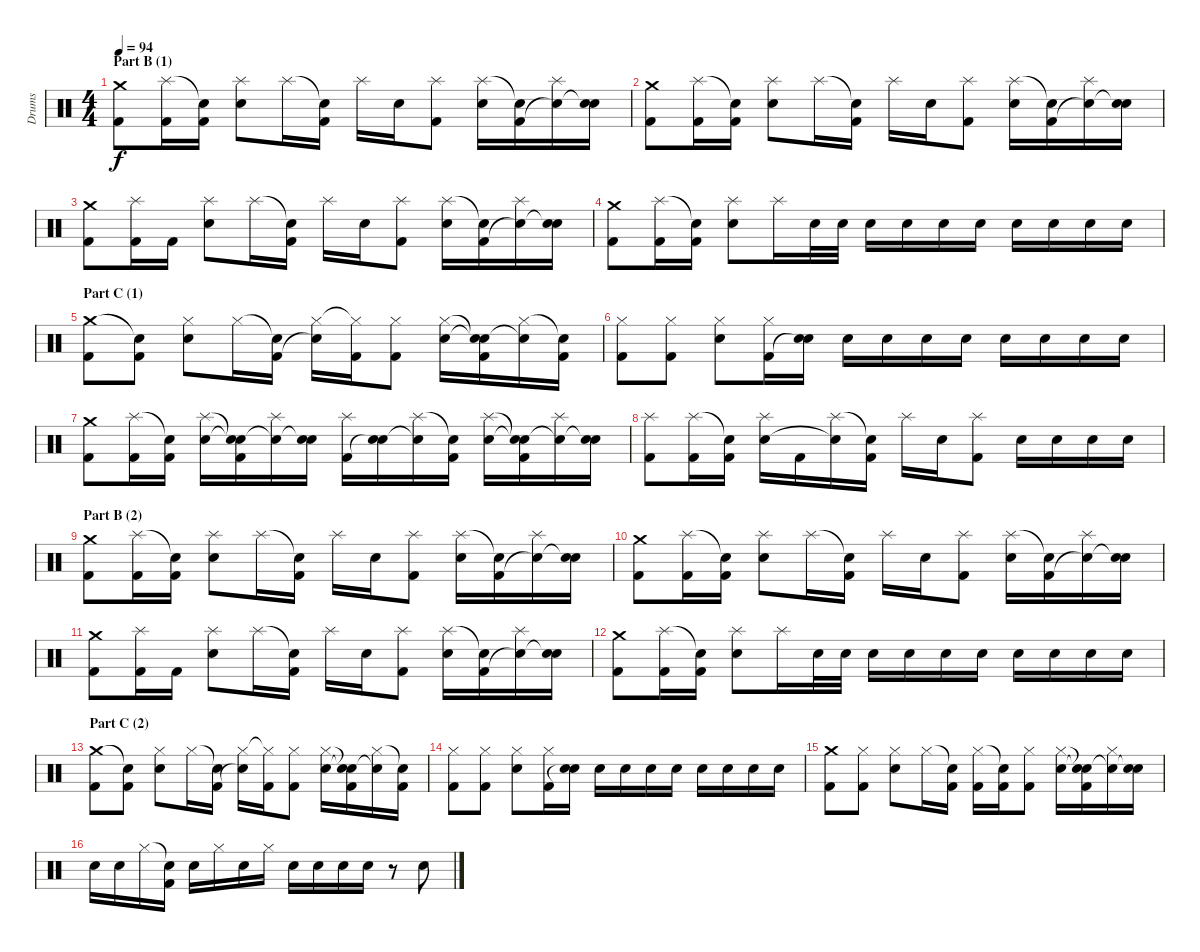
\track ("Drums" "Drums") {instrument percussion}
\staff {score}
\articulation defaults
\ts (4 4)
\section ("" "Part B (1)")
\tempo 94
\clef neutral
\ks c
("Crash medium (hit)" "Kick (hit) 2").8{dy f} ("Splash (hit)" "Kick (hit) 2").16 ("Snare (hit)"{t} "Kick (hit) 2").16 ("Splash (hit)" "Electric Snare (hit)").8 "Splash (hit)".16 ("Snare (hit)"{t} "Kick (hit) 2").16 "Splash (hit)".16 "Electric Snare (hit)".16 ("Splash (hit)" "Kick (hit) 2").8 ("Splash (hit)" "Electric Snare (hit)").16 ("Snare (hit)"{t} "Kick (hit) 2").16 ("Splash (hit)" "Snare (hit)"{t}).16 ("Electric Snare (hit)" "Snare (hit)"{t}).16 |
("Crash medium (hit)" "Kick (hit) 2").8 ("Splash (hit)" "Kick (hit) 2").16 ("Snare (hit)"{t} "Kick (hit) 2").16 ("Splash (hit)" "Electric Snare (hit)").8 "Splash (hit)".16 ("Snare (hit)"{t} "Kick (hit) 2").16 "Splash (hit)".16 "Electric Snare (hit)".16 ("Splash (hit)" "Kick (hit) 2").8 ("Splash (hit)" "Electric Snare (hit)").16 ("Snare (hit)"{t} "Kick (hit) 2").16 ("Splash (hit)" "Snare (hit)"{t}).16 ("Electric Snare (hit)" "Snare (hit)"{t}).16 |
("Crash medium (hit)" "Kick (hit) 2").8 ("Splash (hit)" "Kick (hit) 2").16 "Kick (hit) 2".16 ("Splash (hit)" "Electric Snare (hit)").8 "Splash (hit)".16 ("Snare (hit)"{t} "Kick (hit) 2").16 "Splash (hit)".16 "Electric Snare (hit)".16 ("Splash (hit)" "Kick (hit) 2").8 ("Splash (hit)" "Electric Snare (hit)").16 ("Snare (hit)"{t} "Kick (hit) 2").16 ("Splash (hit)" "Snare (hit)"{t}).16 ("Electric Snare (hit)" "Snare (hit)"{t}).16 |
("Crash medium (hit)" "Kick (hit) 2").8 ("Splash (hit)" "Kick (hit) 2").16 ("Snare (hit)"{t} "Kick (hit) 2").16 ("Splash (hit)" "Electric Snare (hit)").8 "Splash (hit)".16 "Electric Snare (hit)".32 "Electric Snare (hit)".32 "Electric Snare (hit)".16 "Electric Snare (hit)".16 "Electric Snare (hit)".16 "Electric Snare (hit)".16 "Electric Snare (hit)".16 "Electric Snare (hit)".16 "Electric Snare (hit)".16 "Electric Snare (hit)".16 |
\section ("" "Part C (1)")
("Crash medium (hit)" "Kick (hit) 2").8 ("Snare (hit)"{t} "Kick (hit) 2").8 ("Hi-Hat (closed)" "Electric Snare (hit)").8 "Hi-Hat (closed)".16 ("Snare (hit)"{t} "Kick (hit) 2").16 ("Hi-Hat (closed)" "Snare (hit)"{t}).16 ("Hi-Hat (closed)"{t} "Kick (hit) 2").16 ("Hi-Hat (closed)" "Kick (hit) 2").8 ("Hi-Hat (closed)" "Electric Snare (hit)").16 ("Snare (hit)"{t} "Snare (hit)"{t} "Kick (hit) 2").16 ("Hi-Hat (closed)" "Snare (hit)"{t}).16 ("Snare (hit)"{t} "Kick (hit) 2").16 |
("Hi-Hat (closed)" "Kick (hit) 2").8 ("Hi-Hat (closed)" "Kick (hit) 2").8 ("Hi-Hat (closed)" "Electric Snare (hit)").8 ("Hi-Hat (closed)" "Kick (hit) 2").16 ("Electric Snare (hit)" "Snare (hit)"{t}).16 "Electric Snare (hit)".16 "Electric Snare (hit)".16 "Electric Snare (hit)".16 "Electric Snare (hit)".16 "Electric Snare (hit)".16 "Electric Snare (hit)".16 "Electric Snare (hit)".16 "Electric Snare (hit)".16 |
("Crash medium (hit)" "Kick (hit) 2").8 ("Splash (hit)" "Kick (hit) 2").16 ("Snare (hit)"{t} "Kick (hit) 2").16 ("Splash (hit)" "Electric Snare (hit)").16 ("Snare (hit)"{t} "Snare (hit)"{t} "Kick (hit) 2").16 ("Splash (hit)" "Snare (hit)"{t}).16 ("Electric Snare (hit)" "Snare (hit)"{t}).16 ("Splash (hit)" "Kick (hit) 2").16 ("Electric Snare (hit)" "Snare (hit)"{t}).16 ("Splash (hit)" "Snare (hit)"{t}).16 ("Snare (hit)"{t} "Kick (hit) 2").16 ("Splash (hit)" "Electric Snare (hit)").16 ("Snare (hit)"{t} "Snare (hit)"{t} "Kick (hit) 2").16 ("Splash (hit)" "Snare (hit)"{t}).16 ("Electric Snare (hit)" "Snare (hit)"{t}).16 |
("Splash (hit)" "Kick (hit) 2").8 ("Splash (hit)" "Kick (hit) 2").16 ("Snare (hit)"{t} "Kick (hit) 2").16 ("Splash (hit)" "Electric Snare (hit)").16 "Kick (hit) 2".16 ("Splash (hit)" "Snare (hit)"{t}).16 ("Snare (hit)"{t} "Kick (hit) 2").16 "Splash (hit)".16 "Electric Snare (hit)".16 ("Splash (hit)" "Kick (hit) 2").8 "Electric Snare (hit)".16 "Electric Snare (hit)".16 "Electric Snare (hit)".16 "Electric Snare (hit)".16 |
\section ("" "Part B (2)")
("Crash medium (hit)" "Kick (hit) 2").8 ("Splash (hit)" "Kick (hit) 2").16 ("Snare (hit)"{t} "Kick (hit) 2").16 ("Splash (hit)" "Electric Snare (hit)").8 "Splash (hit)".16 ("Snare (hit)"{t} "Kick (hit) 2").16 "Splash (hit)".16 "Electric Snare (hit)".16 ("Splash (hit)" "Kick (hit) 2").8 ("Splash (hit)" "Electric Snare (hit)").16 ("Snare (hit)"{t} "Kick (hit) 2").16 ("Splash (hit)" "Snare (hit)"{t}).16 ("Electric Snare (hit)" "Snare (hit)"{t}).16 |
("Crash medium (hit)" "Kick (hit) 2").8 ("Splash (hit)" "Kick (hit) 2").16 ("Snare (hit)"{t} "Kick (hit) 2").16 ("Splash (hit)" "Electric Snare (hit)").8 "Splash (hit)".16 ("Snare (hit)"{t} "Kick (hit) 2").16 "Splash (hit)".16 "Electric Snare (hit)".16 ("Splash (hit)" "Kick (hit) 2").8 ("Splash (hit)" "Electric Snare (hit)").16 ("Snare (hit)"{t} "Kick (hit) 2").16 ("Splash (hit)" "Snare (hit)"{t}).16 ("Electric Snare (hit)" "Snare (hit)"{t}).16 |
("Crash medium (hit)" "Kick (hit) 2").8 ("Splash (hit)" "Kick (hit) 2").16 "Kick (hit) 2".16 ("Splash (hit)" "Electric Snare (hit)").8 "Splash (hit)".16 ("Snare (hit)"{t} "Kick (hit) 2").16 "Splash (hit)".16 "Electric Snare (hit)".16 ("Splash (hit)" "Kick (hit) 2").8 ("Splash (hit)" "Electric Snare (hit)").16 ("Snare (hit)"{t} "Kick (hit) 2").16 ("Splash (hit)" "Snare (hit)"{t}).16 ("Electric Snare (hit)" "Snare (hit)"{t}).16 |
("Crash medium (hit)" "Kick (hit) 2").8 ("Splash (hit)" "Kick (hit) 2").16 ("Snare (hit)"{t} "Kick (hit) 2").16 ("Splash (hit)" "Electric Snare (hit)").8 "Splash (hit)".16 "Electric Snare (hit)".32 "Electric Snare (hit)".32 "Electric Snare (hit)".16 "Electric Snare (hit)".16 "Electric Snare (hit)".16 "Electric Snare (hit)".16 "Electric Snare (hit)".16 "Electric Snare (hit)".16 "Electric Snare (hit)".16 "Electric Snare (hit)".16 |
\section ("" "Part C (2)")
("Crash medium (hit)" "Kick (hit) 2").8 ("Snare (hit)"{t} "Kick (hit) 2").8 ("Hi-Hat (closed)" "Electric Snare (hit)").8 "Hi-Hat (closed)".16 ("Snare (hit)"{t} "Kick (hit) 2").16 ("Hi-Hat (closed)" "Snare (hit)"{t}).16 ("Hi-Hat (closed)"{t} "Kick (hit) 2").16 ("Hi-Hat (closed)" "Kick (hit) 2").8 ("Hi-Hat (closed)" "Electric Snare (hit)").16 ("Snare (hit)"{t} "Snare (hit)"{t} "Kick (hit) 2").16 ("Hi-Hat (closed)" "Snare (hit)"{t}).16 ("Snare (hit)"{t} "Kick (hit) 2").16 |
("Hi-Hat (closed)" "Kick (hit) 2").8 ("Hi-Hat (closed)" "Kick (hit) 2").8 ("Hi-Hat (closed)" "Electric Snare (hit)").8 ("Hi-Hat (closed)" "Kick (hit) 2").16 ("Electric Snare (hit)" "Snare (hit)"{t}).16 "Electric Snare (hit)".16 "Electric Snare (hit)".16 "Electric Snare (hit)".16 "Electric Snare (hit)".16 "Electric Snare (hit)".16 "Electric Snare (hit)".16 "Electric Snare (hit)".16 "Electric Snare (hit)".16 |
("Crash medium (hit)" "Kick (hit) 2").8 ("Hi-Hat (closed)" "Kick (hit) 2").8 ("Hi-Hat (closed)" "Electric Snare (hit)").8 "Hi-Hat (closed)".16 ("Snare (hit)"{t} "Kick (hit) 2").16 ("Hi-Hat (closed)" "Kick (hit) 2").16 ("Snare (hit)"{t} "Kick (hit) 2").16 ("Hi-Hat (closed)" "Kick (hit) 2").8 ("Hi-Hat (closed)" "Electric Snare (hit)").16 ("Snare (hit)"{t} "Snare (hit)"{t} "Kick (hit) 2").16 ("Hi-Hat (closed)" "Snare (hit)"{t}).16 ("Electric Snare (hit)" "Snare (hit)"{t}).16 |
"Electric Snare (hit)".16 "Electric Snare (hit)".16 "Hi-Hat (closed)".16 ("Snare (hit)"{t} "Kick (hit) 2").16 "Electric Snare (hit)".16 "Hi-Hat (closed)".16 "Electric Snare (hit)".16 "Hi-Hat (closed)".16 "Electric Snare (hit)".16 "Electric Snare (hit)".16 "Electric Snare (hit)".16 "Electric Snare (hit)".16 r.8 "Electric Snare (hit)".8
